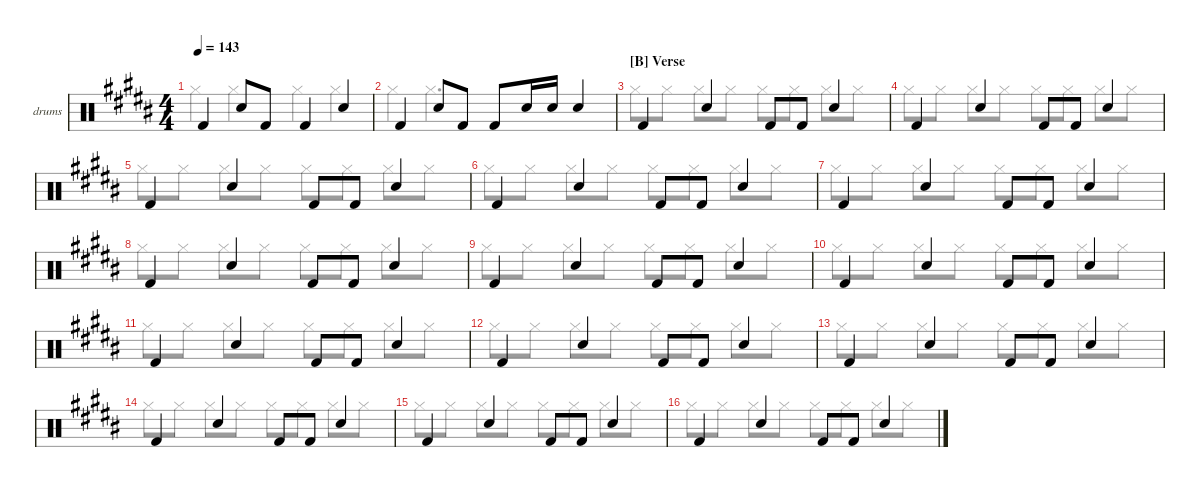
\defaultSystemsLayout 4
\hideDynamics
\bracketExtendMode nobrackets
\firstSystemTrackNameOrientation horizontal
\otherSystemsTrackNameOrientation horizontal
\track ("Drumkit" "drums") {instrument percussion}
\staff {score}
\articulation defaults
\voice
\ts (4 4)
\tempo 143
\clef neutral
\ks g#minor "Kick (hit) 2"{acc forcenatural}.4{dy mf beam Up} "Snare (hit) 2"{acc forcenatural}.8{beam Up} "Kick (hit) 2"{acc forcenatural}.8{beam Up} "Kick (hit) 2"{acc forcenatural}.4{beam Up} "Snare (hit) 2"{acc forcenatural}.4{beam Up}
|
"Kick (hit) 2"{acc forcenatural}.4{beam Up} "Snare (hit) 2"{acc forcenatural}.8{beam Up} "Kick (hit) 2"{acc forcenatural}.8{beam Up} "Kick (hit) 2"{acc forcenatural}.8{beam Up} "Snare (hit) 2"{acc forcenatural}.16{beam Up} "Snare (hit) 2"{acc forcenatural}.16{beam Up} "Snare (hit) 2"{acc forcenatural}.4{beam Up} |
\section ("B" "Verse")
"Kick (hit) 2"{acc forcenatural}.4{beam Up} "Snare (hit) 2"{acc forcenatural}.4{beam Up} "Kick (hit) 2"{acc forcenatural}.8{beam Up} "Kick (hit) 2"{acc forcenatural}.8{beam Up} "Snare (hit) 2"{acc forcenatural}.4{beam Up} |
"Kick (hit) 2"{acc forcenatural}.4{beam Up} "Snare (hit) 2"{acc forcenatural}.4{beam Up} "Kick (hit) 2"{acc forcenatural}.8{beam Up} "Kick (hit) 2"{acc forcenatural}.8{beam Up} "Snare (hit) 2"{acc forcenatural}.4{beam Up} |
"Kick (hit) 2"{acc forcenatural}.4{beam Up} "Snare (hit) 2"{acc forcenatural}.4{beam Up} "Kick (hit) 2"{acc forcenatural}.8{beam Up} "Kick (hit) 2"{acc forcenatural}.8{beam Up} "Snare (hit) 2"{acc forcenatural}.4{beam Up} |
"Kick (hit) 2"{acc forcenatural}.4{beam Up} "Snare (hit) 2"{acc forcenatural}.4{beam Up} "Kick (hit) 2"{acc forcenatural}.8{beam Up} "Kick (hit) 2"{acc forcenatural}.8{beam Up} "Snare (hit) 2"{acc forcenatural}.4{beam Up} |
"Kick (hit) 2"{acc forcenatural}.4{beam Up} "Snare (hit) 2"{acc forcenatural}.4{beam Up} "Kick (hit) 2"{acc forcenatural}.8{beam Up} "Kick (hit) 2"{acc forcenatural}.8{beam Up} "Snare (hit) 2"{acc forcenatural}.4{beam Up} |
"Kick (hit) 2"{acc forcenatural}.4{beam Up} "Snare (hit) 2"{acc forcenatural}.4{beam Up} "Kick (hit) 2"{acc forcenatural}.8{beam Up} "Kick (hit) 2"{acc forcenatural}.8{beam Up} "Snare (hit) 2"{acc forcenatural}.4{beam Up} |
"Kick (hit) 2"{acc forcenatural}.4{beam Up} "Snare (hit) 2"{acc forcenatural}.4{beam Up} "Kick (hit) 2"{acc forcenatural}.8{beam Up} "Kick (hit) 2"{acc forcenatural}.8{beam Up} "Snare (hit) 2"{acc forcenatural}.4{beam Up} |
"Kick (hit) 2"{acc forcenatural}.4{beam Up} "Snare (hit) 2"{acc forcenatural}.4{beam Up} "Kick (hit) 2"{acc forcenatural}.8{beam Up} "Kick (hit) 2"{acc forcenatural}.8{beam Up} "Snare (hit) 2"{acc forcenatural}.4{beam Up} |
"Kick (hit) 2"{acc forcenatural}.4{beam Up} "Snare (hit) 2"{acc forcenatural}.4{beam Up} "Kick (hit) 2"{acc forcenatural}.8{beam Up} "Kick (hit) 2"{acc forcenatural}.8{beam Up} "Snare (hit) 2"{acc forcenatural}.4{beam Up} |
"Kick (hit) 2"{acc forcenatural}.4{beam Up} "Snare (hit) 2"{acc forcenatural}.4{beam Up} "Kick (hit) 2"{acc forcenatural}.8{beam Up} "Kick (hit) 2"{acc forcenatural}.8{beam Up} "Snare (hit) 2"{acc forcenatural}.4{beam Up} |
"Kick (hit) 2"{acc forcenatural}.4{beam Up} "Snare (hit) 2"{acc forcenatural}.4{beam Up} "Kick (hit) 2"{acc forcenatural}.8{beam Up} "Kick (hit) 2"{acc forcenatural}.8{beam Up} "Snare (hit) 2"{acc forcenatural}.4{beam Up} |
"Kick (hit) 2"{acc forcenatural}.4{beam Up} "Snare (hit) 2"{acc forcenatural}.4{beam Up} "Kick (hit) 2"{acc forcenatural}.8{beam Up} "Kick (hit) 2"{acc forcenatural}.8{beam Up} "Snare (hit) 2"{acc forcenatural}.4{beam Up} |
"Kick (hit) 2"{acc forcenatural}.4{beam Up} "Snare (hit) 2"{acc forcenatural}.4{beam Up} "Kick (hit) 2"{acc forcenatural}.8{beam Up} "Kick (hit) 2"{acc forcenatural}.8{beam Up} "Snare (hit) 2"{acc forcenatural}.4{beam Up} |
"Kick (hit) 2"{acc forcenatural}.4{beam Up} "Snare (hit) 2"{acc forcenatural}.4{beam Up} "Kick (hit) 2"{acc forcenatural}.8{beam Up} "Kick (hit) 2"{acc forcenatural}.8{beam Up} "Snare (hit) 2"{acc forcenatural}.4{beam Up}
\voice
\clef neutral
\ottava regular
\simile none
\ks g#minor "Hi-Hat (closed)"{acc forcenatural}.4{dy mf beam Down} "Hi-Hat (closed)"{acc forcenatural}.4{beam Down} "Hi-Hat (closed)"{acc forcenatural}.4{beam Down} "Hi-Hat (closed)"{acc forcenatural}.4{beam Down}
|
"Hi-Hat (closed)"{acc forcenatural}.4{beam Down} "Hi-Hat (closed)"{acc forcenatural}.2{d beam Down} |
"Hi-Hat (closed)"{acc forcenatural}.8{beam Down} "Hi-Hat (closed)"{acc forcenatural}.8{beam Down} "Hi-Hat (closed)"{acc forcenatural}.8{beam Down} "Hi-Hat (closed)"{acc forcenatural}.8{beam Down} "Hi-Hat (closed)"{acc forcenatural}.8{beam Down} "Hi-Hat (closed)"{acc forcenatural}.8{beam Down} "Hi-Hat (closed)"{acc forcenatural}.8{beam Down} "Hi-Hat (closed)"{acc forcenatural}.8{beam Down} |
"Hi-Hat (closed)"{acc forcenatural}.8{beam Down} "Hi-Hat (closed)"{acc forcenatural}.8{beam Down} "Hi-Hat (closed)"{acc forcenatural}.8{beam Down} "Hi-Hat (closed)"{acc forcenatural}.8{beam Down} "Hi-Hat (closed)"{acc forcenatural}.8{beam Down} "Hi-Hat (closed)"{acc forcenatural}.8{beam Down} "Hi-Hat (closed)"{acc forcenatural}.8{beam Down} "Hi-Hat (closed)"{acc forcenatural}.8{beam Down} |
"Hi-Hat (closed)"{acc forcenatural}.8{beam Down} "Hi-Hat (closed)"{acc forcenatural}.8{beam Down} "Hi-Hat (closed)"{acc forcenatural}.8{beam Down} "Hi-Hat (closed)"{acc forcenatural}.8{beam Down} "Hi-Hat (closed)"{acc forcenatural}.8{beam Down} "Hi-Hat (closed)"{acc forcenatural}.8{beam Down} "Hi-Hat (closed)"{acc forcenatural}.8{beam Down} "Hi-Hat (closed)"{acc forcenatural}.8{beam Down} |
"Hi-Hat (closed)"{acc forcenatural}.8{beam Down} "Hi-Hat (closed)"{acc forcenatural}.8{beam Down} "Hi-Hat (closed)"{acc forcenatural}.8{beam Down} "Hi-Hat (closed)"{acc forcenatural}.8{beam Down} "Hi-Hat (closed)"{acc forcenatural}.8{beam Down} "Hi-Hat (closed)"{acc forcenatural}.8{beam Down} "Hi-Hat (closed)"{acc forcenatural}.8{beam Down} "Hi-Hat (closed)"{acc forcenatural}.8{beam Down} |
"Hi-Hat (closed)"{acc forcenatural}.8{beam Down} "Hi-Hat (closed)"{acc forcenatural}.8{beam Down} "Hi-Hat (closed)"{acc forcenatural}.8{beam Down} "Hi-Hat (closed)"{acc forcenatural}.8{beam Down} "Hi-Hat (closed)"{acc forcenatural}.8{beam Down} "Hi-Hat (closed)"{acc forcenatural}.8{beam Down} "Hi-Hat (closed)"{acc forcenatural}.8{beam Down} "Hi-Hat (closed)"{acc forcenatural}.8{beam Down} |
"Hi-Hat (closed)"{acc forcenatural}.8{beam Down} "Hi-Hat (closed)"{acc forcenatural}.8{beam Down} "Hi-Hat (closed)"{acc forcenatural}.8{beam Down} "Hi-Hat (closed)"{acc forcenatural}.8{beam Down} "Hi-Hat (closed)"{acc forcenatural}.8{beam Down} "Hi-Hat (closed)"{acc forcenatural}.8{beam Down} "Hi-Hat (closed)"{acc forcenatural}.8{beam Down} "Hi-Hat (closed)"{acc forcenatural}.8{beam Down} |
"Hi-Hat (closed)"{acc forcenatural}.8{beam Down} "Hi-Hat (closed)"{acc forcenatural}.8{beam Down} "Hi-Hat (closed)"{acc forcenatural}.8{beam Down} "Hi-Hat (closed)"{acc forcenatural}.8{beam Down} "Hi-Hat (closed)"{acc forcenatural}.8{beam Down} "Hi-Hat (closed)"{acc forcenatural}.8{beam Down} "Hi-Hat (closed)"{acc forcenatural}.8{beam Down} "Hi-Hat (closed)"{acc forcenatural}.8{beam Down} |
"Hi-Hat (closed)"{acc forcenatural}.8{beam Down} "Hi-Hat (closed)"{acc forcenatural}.8{beam Down} "Hi-Hat (closed)"{acc forcenatural}.8{beam Down} "Hi-Hat (closed)"{acc forcenatural}.8{beam Down} "Hi-Hat (closed)"{acc forcenatural}.8{beam Down} "Hi-Hat (closed)"{acc forcenatural}.8{beam Down} "Hi-Hat (closed)"{acc forcenatural}.8{beam Down} "Hi-Hat (closed)"{acc forcenatural}.8{beam Down} |
"Hi-Hat (closed)"{acc forcenatural}.8{beam Down} "Hi-Hat (closed)"{acc forcenatural}.8{beam Down} "Hi-Hat (closed)"{acc forcenatural}.8{beam Down} "Hi-Hat (closed)"{acc forcenatural}.8{beam Down} "Hi-Hat (closed)"{acc forcenatural}.8{beam Down} "Hi-Hat (closed)"{acc forcenatural}.8{beam Down} "Hi-Hat (closed)"{acc forcenatural}.8{beam Down} "Hi-Hat (closed)"{acc forcenatural}.8{beam Down} |
"Hi-Hat (closed)"{acc forcenatural}.8{beam Down} "Hi-Hat (closed)"{acc forcenatural}.8{beam Down} "Hi-Hat (closed)"{acc forcenatural}.8{beam Down} "Hi-Hat (closed)"{acc forcenatural}.8{beam Down} "Hi-Hat (closed)"{acc forcenatural}.8{beam Down} "Hi-Hat (closed)"{acc forcenatural}.8{beam Down} "Hi-Hat (closed)"{acc forcenatural}.8{beam Down} "Hi-Hat (closed)"{acc forcenatural}.8{beam Down} |
"Hi-Hat (closed)"{acc forcenatural}.8{beam Down} "Hi-Hat (closed)"{acc forcenatural}.8{beam Down} "Hi-Hat (closed)"{acc forcenatural}.8{beam Down} "Hi-Hat (closed)"{acc forcenatural}.8{beam Down} "Hi-Hat (closed)"{acc forcenatural}.8{beam Down} "Hi-Hat (closed)"{acc forcenatural}.8{beam Down} "Hi-Hat (closed)"{acc forcenatural}.8{beam Down} "Hi-Hat (closed)"{acc forcenatural}.8{beam Down} |
"Hi-Hat (closed)"{acc forcenatural}.8{beam Down} "Hi-Hat (closed)"{acc forcenatural}.8{beam Down} "Hi-Hat (closed)"{acc forcenatural}.8{beam Down} "Hi-Hat (closed)"{acc forcenatural}.8{beam Down} "Hi-Hat (closed)"{acc forcenatural}.8{beam Down} "Hi-Hat (closed)"{acc forcenatural}.8{beam Down} "Hi-Hat (closed)"{acc forcenatural}.8{beam Down} "Hi-Hat (closed)"{acc forcenatural}.8{beam Down} |
"Hi-Hat (closed)"{acc forcenatural}.8{beam Down} "Hi-Hat (closed)"{acc forcenatural}.8{beam Down} "Hi-Hat (closed)"{acc forcenatural}.8{beam Down} "Hi-Hat (closed)"{acc forcenatural}.8{beam Down} "Hi-Hat (closed)"{acc forcenatural}.8{beam Down} "Hi-Hat (closed)"{acc forcenatural}.8{beam Down} "Hi-Hat (closed)"{acc forcenatural}.8{beam Down} "Hi-Hat (closed)"{acc forcenatural}.8{beam Down} |
"Hi-Hat (closed)"{acc forcenatural}.8{beam Down} "Hi-Hat (closed)"{acc forcenatural}.8{beam Down} "Hi-Hat (closed)"{acc forcenatural}.8{beam Down} "Hi-Hat (closed)"{acc forcenatural}.8{beam Down} "Hi-Hat (closed)"{acc forcenatural}.8{beam Down} "Hi-Hat (closed)"{acc forcenatural}.8{beam Down} "Hi-Hat (closed)"{acc forcenatural}.8{beam Down} "Hi-Hat (closed)"{acc forcenatural}.8{beam Down}
